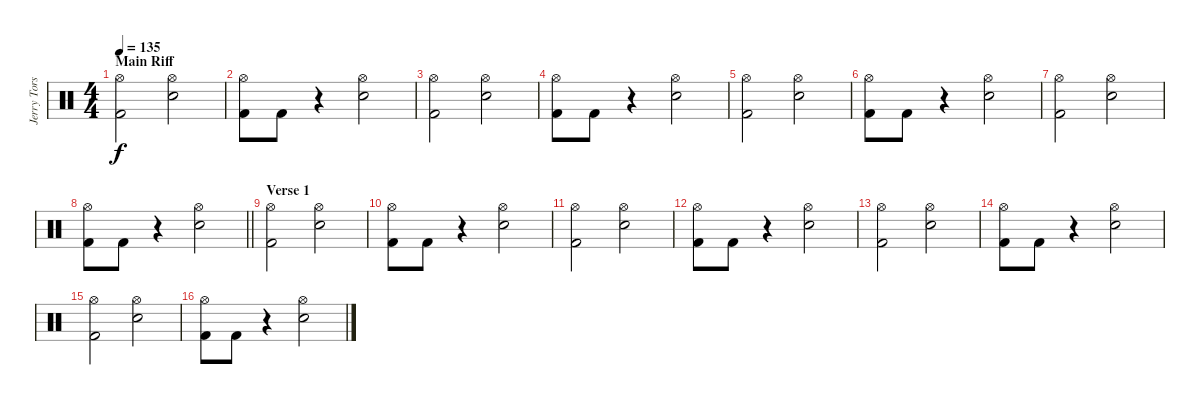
\track ("Jerry Torstensson" "Jerry Tors") {instrument percussion}
\staff {score}
\articulation defaults
\ts (4 4)
\section ("" "Main Riff")
\tempo 135
\clef neutral
\ks c
("Hi-Hat (open)" "Kick (hit) 2").2{dy f} ("Hi-Hat (open)" "Snare (hit) 2").2 |
("Hi-Hat (open)" "Kick (hit) 2").8 "Kick (hit) 2".8 r.4 ("Hi-Hat (open)" "Snare (hit) 2").2 |
("Hi-Hat (open)" "Kick (hit) 2").2 ("Hi-Hat (open)" "Snare (hit) 2").2 |
("Hi-Hat (open)" "Kick (hit) 2").8 "Kick (hit) 2".8 r.4 ("Hi-Hat (open)" "Snare (hit) 2").2 |
("Hi-Hat (open)" "Kick (hit) 2").2 ("Hi-Hat (open)" "Snare (hit) 2").2 |
("Hi-Hat (open)" "Kick (hit) 2").8 "Kick (hit) 2".8 r.4 ("Hi-Hat (open)" "Snare (hit) 2").2 |
("Hi-Hat (open)" "Kick (hit) 2").2 ("Hi-Hat (open)" "Snare (hit) 2").2 |
\barLineRight lightlight
("Hi-Hat (open)" "Kick (hit) 2").8 "Kick (hit) 2".8 r.4 ("Hi-Hat (open)" "Snare (hit) 2").2 |
\section ("" "Verse 1")
("Hi-Hat (open)" "Kick (hit) 2").2 ("Hi-Hat (open)" "Snare (hit) 2").2 |
("Hi-Hat (open)" "Kick (hit) 2").8 "Kick (hit) 2".8 r.4 ("Hi-Hat (open)" "Snare (hit) 2").2 |
("Hi-Hat (open)" "Kick (hit) 2").2 ("Hi-Hat (open)" "Snare (hit) 2").2 |
("Hi-Hat (open)" "Kick (hit) 2").8 "Kick (hit) 2".8 r.4 ("Hi-Hat (open)" "Snare (hit) 2").2 |
("Hi-Hat (open)" "Kick (hit) 2").2 ("Hi-Hat (open)" "Snare (hit) 2").2 |
("Hi-Hat (open)" "Kick (hit) 2").8 "Kick (hit) 2".8 r.4 ("Hi-Hat (open)" "Snare (hit) 2").2 |
("Hi-Hat (open)" "Kick (hit) 2").2 ("Hi-Hat (open)" "Snare (hit) 2").2 |
("Hi-Hat (open)" "Kick (hit) 2").8 "Kick (hit) 2".8 r.4 ("Hi-Hat (open)" "Snare (hit) 2").2
